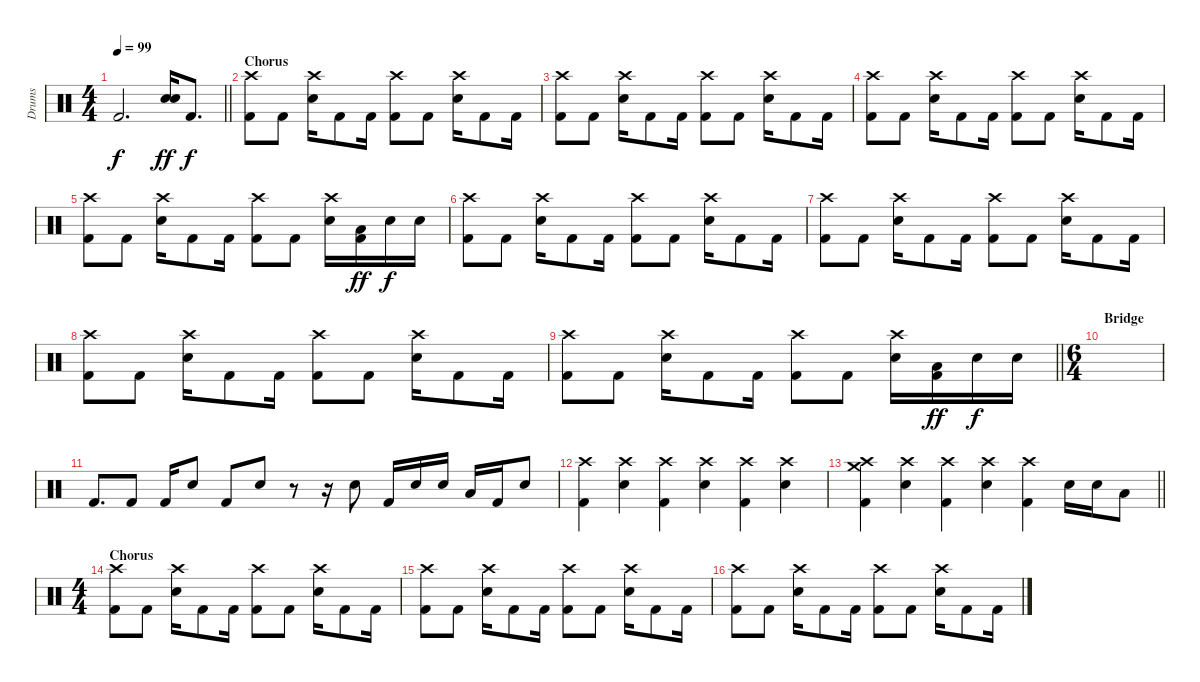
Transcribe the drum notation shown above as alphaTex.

\track ("Drums" "Drums") {instrument percussion}
\staff {score}
\articulation defaults
\ts (4 4)
\tempo 99
\clef neutral
\barLineRight lightlight
\ks c "Kick (hit) 2".2{d dy f}
("Snare (hit) 2" "Electric Snare (hit)").16{dy ff} "Kick (hit) 2".8{d dy f} |
\section ("" "Chorus")
("Crash high (hit)" "Kick (hit) 2").8 "Kick (hit) 2".8 ("Crash high (hit)" "Electric Snare (hit)").16 "Kick (hit) 2".8 "Kick (hit) 2".16 ("Crash high (hit)" "Kick (hit) 2").8 "Kick (hit) 2".8 ("Crash high (hit)" "Electric Snare (hit)").16 "Kick (hit) 2".8 "Kick (hit) 2".16 |
("Crash high (hit)" "Kick (hit) 2").8 "Kick (hit) 2".8 ("Crash high (hit)" "Electric Snare (hit)").16 "Kick (hit) 2".8 "Kick (hit) 2".16 ("Crash high (hit)" "Kick (hit) 2").8 "Kick (hit) 2".8 ("Crash high (hit)" "Electric Snare (hit)").16 "Kick (hit) 2".8 "Kick (hit) 2".16 |
("Crash high (hit)" "Kick (hit) 2").8 "Kick (hit) 2".8 ("Crash high (hit)" "Electric Snare (hit)").16 "Kick (hit) 2".8 "Kick (hit) 2".16 ("Crash high (hit)" "Kick (hit) 2").8 "Kick (hit) 2".8 ("Crash high (hit)" "Electric Snare (hit)").16 "Kick (hit) 2".8 "Kick (hit) 2".16 |
("Crash high (hit)" "Kick (hit) 2").8 "Kick (hit) 2".8 ("Crash high (hit)" "Electric Snare (hit)").16 "Kick (hit) 2".8 "Kick (hit) 2".16 ("Crash high (hit)" "Kick (hit) 2").8 "Kick (hit) 2".8 ("Crash high (hit)" "Electric Snare (hit)").16 ("Low Floor Tom (hit)" "Kick (hit) 2").16{dy ff} "Electric Snare (hit)".16{dy f} "Electric Snare (hit)".16 |
("Crash high (hit)" "Kick (hit) 2").8 "Kick (hit) 2".8 ("Crash high (hit)" "Electric Snare (hit)").16 "Kick (hit) 2".8 "Kick (hit) 2".16 ("Crash high (hit)" "Kick (hit) 2").8 "Kick (hit) 2".8 ("Crash high (hit)" "Electric Snare (hit)").16 "Kick (hit) 2".8 "Kick (hit) 2".16 |
("Crash high (hit)" "Kick (hit) 2").8 "Kick (hit) 2".8 ("Crash high (hit)" "Electric Snare (hit)").16 "Kick (hit) 2".8 "Kick (hit) 2".16 ("Crash high (hit)" "Kick (hit) 2").8 "Kick (hit) 2".8 ("Crash high (hit)" "Electric Snare (hit)").16 "Kick (hit) 2".8 "Kick (hit) 2".16 |
("Crash high (hit)" "Kick (hit) 2").8 "Kick (hit) 2".8 ("Crash high (hit)" "Electric Snare (hit)").16 "Kick (hit) 2".8 "Kick (hit) 2".16 ("Crash high (hit)" "Kick (hit) 2").8 "Kick (hit) 2".8 ("Crash high (hit)" "Electric Snare (hit)").16 "Kick (hit) 2".8 "Kick (hit) 2".16 |
\barLineRight lightlight
("Crash high (hit)" "Kick (hit) 2").8 "Kick (hit) 2".8 ("Crash high (hit)" "Electric Snare (hit)").16 "Kick (hit) 2".8 "Kick (hit) 2".16 ("Crash high (hit)" "Kick (hit) 2").8 "Kick (hit) 2".8 ("Crash high (hit)" "Electric Snare (hit)").16 ("Low Floor Tom (hit)" "Kick (hit) 2").16{dy ff} "Electric Snare (hit)".16{dy f} "Electric Snare (hit)".16 |
\ts (6 4)
\section ("" "Bridge")
|
"Kick (hit) 2".8{d} "Kick (hit) 2".8 "Kick (hit) 2".16 "Electric Snare (hit)".8 "Kick (hit) 2".8 "Electric Snare (hit)".8 r.8 r.16 "Electric Snare (hit)".8 "Kick (hit) 2".16 "Electric Snare (hit)".16 "Electric Snare (hit)".16 "Low Floor Tom (hit)".16 "Kick (hit) 2".16 "Electric Snare (hit)".8 |
("Crash high (hit)" "Kick (hit) 2").4 ("Crash high (hit)" "Electric Snare (hit)").4 ("Crash high (hit)" "Kick (hit) 2").4 ("Crash high (hit)" "Electric Snare (hit)").4 ("Crash high (hit)" "Kick (hit) 2").4 ("Crash high (hit)" "Electric Snare (hit)").4 |
\barLineRight lightlight
("Crash medium (hit)" "Crash high (hit)" "Kick (hit) 2").4 ("Crash high (hit)" "Electric Snare (hit)").4 ("Crash high (hit)" "Kick (hit) 2").4 ("Crash high (hit)" "Electric Snare (hit)").4 ("Crash high (hit)" "Kick (hit) 2").4 "Electric Snare (hit)".16 "Electric Snare (hit)".16 "Low Floor Tom (hit)".8 |
\ts (4 4)
\section ("" "Chorus")
("Crash high (hit)" "Kick (hit) 2").8 "Kick (hit) 2".8 ("Crash high (hit)" "Electric Snare (hit)").16 "Kick (hit) 2".8 "Kick (hit) 2".16 ("Crash high (hit)" "Kick (hit) 2").8 "Kick (hit) 2".8 ("Crash high (hit)" "Electric Snare (hit)").16 "Kick (hit) 2".8 "Kick (hit) 2".16 |
("Crash high (hit)" "Kick (hit) 2").8 "Kick (hit) 2".8 ("Crash high (hit)" "Electric Snare (hit)").16 "Kick (hit) 2".8 "Kick (hit) 2".16 ("Crash high (hit)" "Kick (hit) 2").8 "Kick (hit) 2".8 ("Crash high (hit)" "Electric Snare (hit)").16 "Kick (hit) 2".8 "Kick (hit) 2".16 |
("Crash high (hit)" "Kick (hit) 2").8 "Kick (hit) 2".8 ("Crash high (hit)" "Electric Snare (hit)").16 "Kick (hit) 2".8 "Kick (hit) 2".16 ("Crash high (hit)" "Kick (hit) 2").8 "Kick (hit) 2".8 ("Crash high (hit)" "Electric Snare (hit)").16 "Kick (hit) 2".8 "Kick (hit) 2".16
